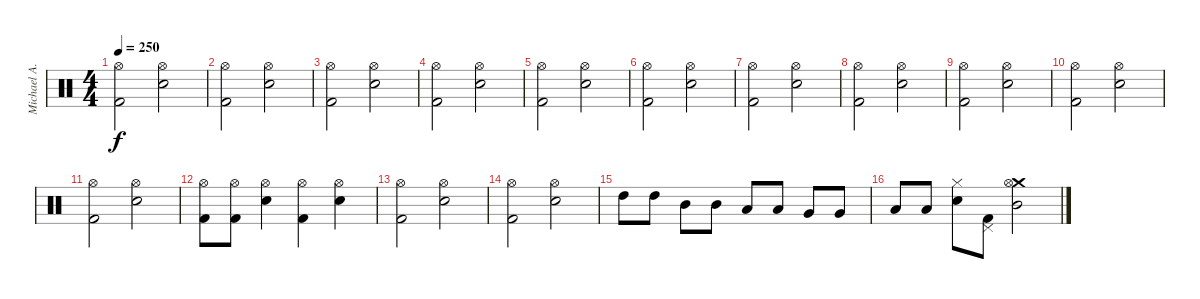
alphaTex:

\track ("Michael A." "Michael A.") {instrument percussion}
\staff {score}
\articulation defaults
\ts (4 4)
\tempo 250
\clef neutral
\ks c
("Hi-Hat (open)" "Kick (hit) 2").2{dy f} ("Hi-Hat (open)" "Electric Snare (hit)").2 |
("Hi-Hat (open)" "Kick (hit) 2").2 ("Hi-Hat (open)" "Electric Snare (hit)").2 |
("Hi-Hat (open)" "Kick (hit) 2").2 ("Hi-Hat (open)" "Electric Snare (hit)").2 |
("Hi-Hat (open)" "Kick (hit) 2").2 ("Hi-Hat (open)" "Electric Snare (hit)").2 |
("Hi-Hat (open)" "Kick (hit) 2").2 ("Hi-Hat (open)" "Electric Snare (hit)").2 |
("Hi-Hat (open)" "Kick (hit) 2").2 ("Hi-Hat (open)" "Electric Snare (hit)").2 |
("Hi-Hat (open)" "Kick (hit) 2").2 ("Hi-Hat (open)" "Electric Snare (hit)").2 |
("Hi-Hat (open)" "Kick (hit) 2").2 ("Hi-Hat (open)" "Electric Snare (hit)").2 |
("Hi-Hat (open)" "Kick (hit) 2").2 ("Hi-Hat (open)" "Electric Snare (hit)").2 |
("Hi-Hat (open)" "Kick (hit) 2").2 ("Hi-Hat (open)" "Electric Snare (hit)").2 |
("Hi-Hat (open)" "Kick (hit) 2").2 ("Hi-Hat (open)" "Electric Snare (hit)").2 |
("Hi-Hat (open)" "Kick (hit) 2").8 ("Hi-Hat (open)" "Kick (hit) 2").8 ("Hi-Hat (open)" "Electric Snare (hit)").4 ("Hi-Hat (open)" "Kick (hit) 2").4 ("Hi-Hat (open)" "Electric Snare (hit)").4 |
("Hi-Hat (open)" "Kick (hit) 2").2 ("Hi-Hat (open)" "Electric Snare (hit)").2 |
("Hi-Hat (open)" "Kick (hit) 2").2 ("Hi-Hat (open)" "Electric Snare (hit)").2 |
"High Tom (hit)".8 "High Tom (hit)".8 "Mid Tom (hit)".8 "Mid Tom (hit)".8 "Low Tom (hit)".8 "Low Tom (hit)".8 "Very Low Tom (hit)".8 "Very Low Tom (hit)".8 |
"Low Floor Tom (hit)".8 "Low Floor Tom (hit)".8 ("Hi-Hat (closed)" "Electric Snare (hit)").8 ("Pedal Hi-Hat (hit)" "Kick (hit) 2").8 ("Crash medium (hit)" "Hi-Hat (open)" "Mid Tom (hit)").2
